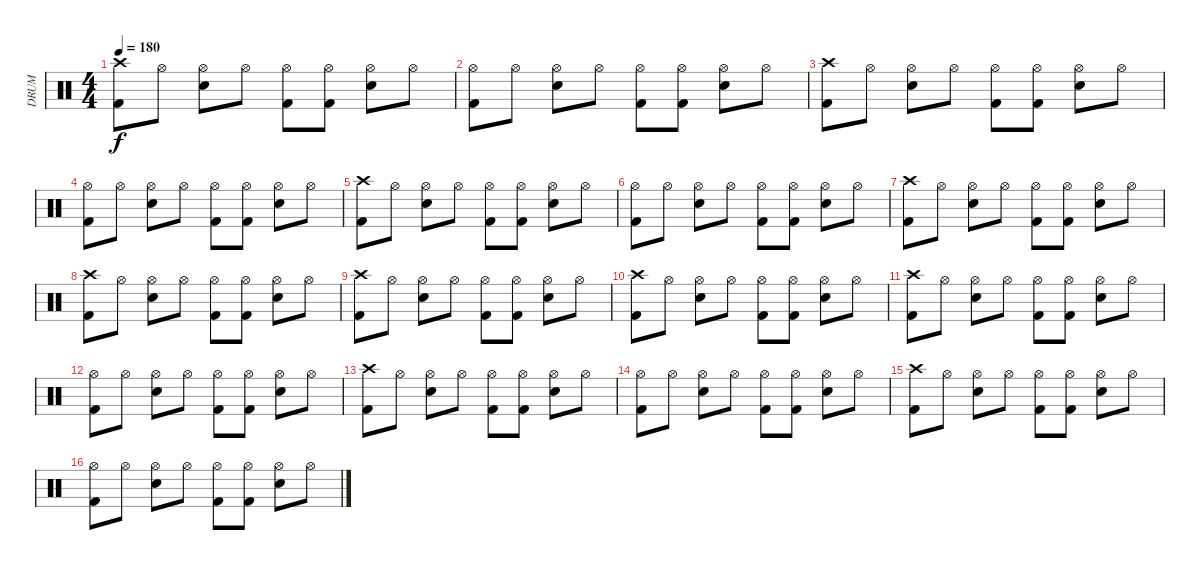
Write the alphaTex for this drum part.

\track ("DRUM" "DRUM") {instrument percussion}
\staff {score}
\articulation defaults
\ts (4 4)
\tempo 180
\clef neutral
\ks c
("Crash high (hit)" "Kick (hit) 2").8{dy f} "Hi-Hat (open)".8{volume 10} ("Hi-Hat (open)" "Snare (hit) 2").8 "Hi-Hat (open)".8{volume 10} ("Hi-Hat (open)" "Kick (hit) 2").8 ("Hi-Hat (open)" "Kick (hit) 2").8{volume 10} ("Hi-Hat (open)" "Snare (hit) 2").8 "Hi-Hat (open)".8{volume 10} |
("Hi-Hat (open)" "Kick (hit) 2").8 "Hi-Hat (open)".8{volume 10} ("Hi-Hat (open)" "Snare (hit) 2").8 "Hi-Hat (open)".8{volume 10} ("Hi-Hat (open)" "Kick (hit) 2").8 ("Hi-Hat (open)" "Kick (hit) 2").8{volume 10} ("Hi-Hat (open)" "Snare (hit) 2").8 "Hi-Hat (open)".8{volume 10} |
("Crash high (hit)" "Kick (hit) 2").8 "Hi-Hat (open)".8{volume 10} ("Hi-Hat (open)" "Snare (hit) 2").8 "Hi-Hat (open)".8{volume 10} ("Hi-Hat (open)" "Kick (hit) 2").8 ("Hi-Hat (open)" "Kick (hit) 2").8{volume 10} ("Hi-Hat (open)" "Snare (hit) 2").8 "Hi-Hat (open)".8{volume 10} |
("Hi-Hat (open)" "Kick (hit) 2").8 "Hi-Hat (open)".8{volume 10} ("Hi-Hat (open)" "Snare (hit) 2").8 "Hi-Hat (open)".8{volume 10} ("Hi-Hat (open)" "Kick (hit) 2").8 ("Hi-Hat (open)" "Kick (hit) 2").8{volume 10} ("Hi-Hat (open)" "Snare (hit) 2").8 "Hi-Hat (open)".8{volume 10} |
("Crash high (hit)" "Kick (hit) 2").8 "Hi-Hat (open)".8{volume 10} ("Hi-Hat (open)" "Snare (hit) 2").8 "Hi-Hat (open)".8{volume 10} ("Hi-Hat (open)" "Kick (hit) 2").8 ("Hi-Hat (open)" "Kick (hit) 2").8{volume 10} ("Hi-Hat (open)" "Snare (hit) 2").8 "Hi-Hat (open)".8{volume 10} |
("Hi-Hat (open)" "Kick (hit) 2").8 "Hi-Hat (open)".8{volume 10} ("Hi-Hat (open)" "Snare (hit) 2").8 "Hi-Hat (open)".8{volume 10} ("Hi-Hat (open)" "Kick (hit) 2").8 ("Hi-Hat (open)" "Kick (hit) 2").8{volume 10} ("Hi-Hat (open)" "Snare (hit) 2").8 "Hi-Hat (open)".8{volume 10} |
("Crash high (hit)" "Kick (hit) 2").8 "Hi-Hat (open)".8{volume 10} ("Hi-Hat (open)" "Snare (hit) 2").8 "Hi-Hat (open)".8{volume 10} ("Hi-Hat (open)" "Kick (hit) 2").8 ("Hi-Hat (open)" "Kick (hit) 2").8{volume 10} ("Hi-Hat (open)" "Snare (hit) 2").8 "Hi-Hat (open)".8{volume 10} |
("Crash high (hit)" "Kick (hit) 2").8 "Hi-Hat (open)".8{volume 10} ("Hi-Hat (open)" "Snare (hit) 2").8 "Hi-Hat (open)".8{volume 10} ("Hi-Hat (open)" "Kick (hit) 2").8 ("Hi-Hat (open)" "Kick (hit) 2").8{volume 10} ("Hi-Hat (open)" "Snare (hit) 2").8 "Hi-Hat (open)".8{volume 10} |
("Crash high (hit)" "Kick (hit) 2").8 "Hi-Hat (open)".8{volume 10} ("Hi-Hat (open)" "Snare (hit) 2").8 "Hi-Hat (open)".8{volume 10} ("Hi-Hat (open)" "Kick (hit) 2").8 ("Hi-Hat (open)" "Kick (hit) 2").8{volume 10} ("Hi-Hat (open)" "Snare (hit) 2").8 "Hi-Hat (open)".8{volume 10} |
("Crash high (hit)" "Kick (hit) 2").8 "Hi-Hat (open)".8{volume 10} ("Hi-Hat (open)" "Snare (hit) 2").8 "Hi-Hat (open)".8{volume 10} ("Hi-Hat (open)" "Kick (hit) 2").8 ("Hi-Hat (open)" "Kick (hit) 2").8{volume 10} ("Hi-Hat (open)" "Snare (hit) 2").8 "Hi-Hat (open)".8{volume 10} |
("Crash high (hit)" "Kick (hit) 2").8 "Hi-Hat (open)".8{volume 10} ("Hi-Hat (open)" "Snare (hit) 2").8 "Hi-Hat (open)".8{volume 10} ("Hi-Hat (open)" "Kick (hit) 2").8 ("Hi-Hat (open)" "Kick (hit) 2").8{volume 10} ("Hi-Hat (open)" "Snare (hit) 2").8 "Hi-Hat (open)".8{volume 10} |
("Hi-Hat (open)" "Kick (hit) 2").8 "Hi-Hat (open)".8{volume 10} ("Hi-Hat (open)" "Snare (hit) 2").8 "Hi-Hat (open)".8{volume 10} ("Hi-Hat (open)" "Kick (hit) 2").8 ("Hi-Hat (open)" "Kick (hit) 2").8{volume 10} ("Hi-Hat (open)" "Snare (hit) 2").8 "Hi-Hat (open)".8{volume 10} |
("Crash high (hit)" "Kick (hit) 2").8 "Hi-Hat (open)".8{volume 10} ("Hi-Hat (open)" "Snare (hit) 2").8 "Hi-Hat (open)".8{volume 10} ("Hi-Hat (open)" "Kick (hit) 2").8 ("Hi-Hat (open)" "Kick (hit) 2").8{volume 10} ("Hi-Hat (open)" "Snare (hit) 2").8 "Hi-Hat (open)".8{volume 10} |
("Hi-Hat (open)" "Kick (hit) 2").8 "Hi-Hat (open)".8{volume 10} ("Hi-Hat (open)" "Snare (hit) 2").8 "Hi-Hat (open)".8{volume 10} ("Hi-Hat (open)" "Kick (hit) 2").8 ("Hi-Hat (open)" "Kick (hit) 2").8{volume 10} ("Hi-Hat (open)" "Snare (hit) 2").8 "Hi-Hat (open)".8{volume 10} |
("Crash high (hit)" "Kick (hit) 2").8 "Hi-Hat (open)".8{volume 10} ("Hi-Hat (open)" "Snare (hit) 2").8 "Hi-Hat (open)".8{volume 10} ("Hi-Hat (open)" "Kick (hit) 2").8 ("Hi-Hat (open)" "Kick (hit) 2").8{volume 10} ("Hi-Hat (open)" "Snare (hit) 2").8 "Hi-Hat (open)".8{volume 10} |
("Hi-Hat (open)" "Kick (hit) 2").8 "Hi-Hat (open)".8{volume 10} ("Hi-Hat (open)" "Snare (hit) 2").8 "Hi-Hat (open)".8{volume 10} ("Hi-Hat (open)" "Kick (hit) 2").8 ("Hi-Hat (open)" "Kick (hit) 2").8{volume 10} ("Hi-Hat (open)" "Snare (hit) 2").8 "Hi-Hat (open)".8{volume 10}
